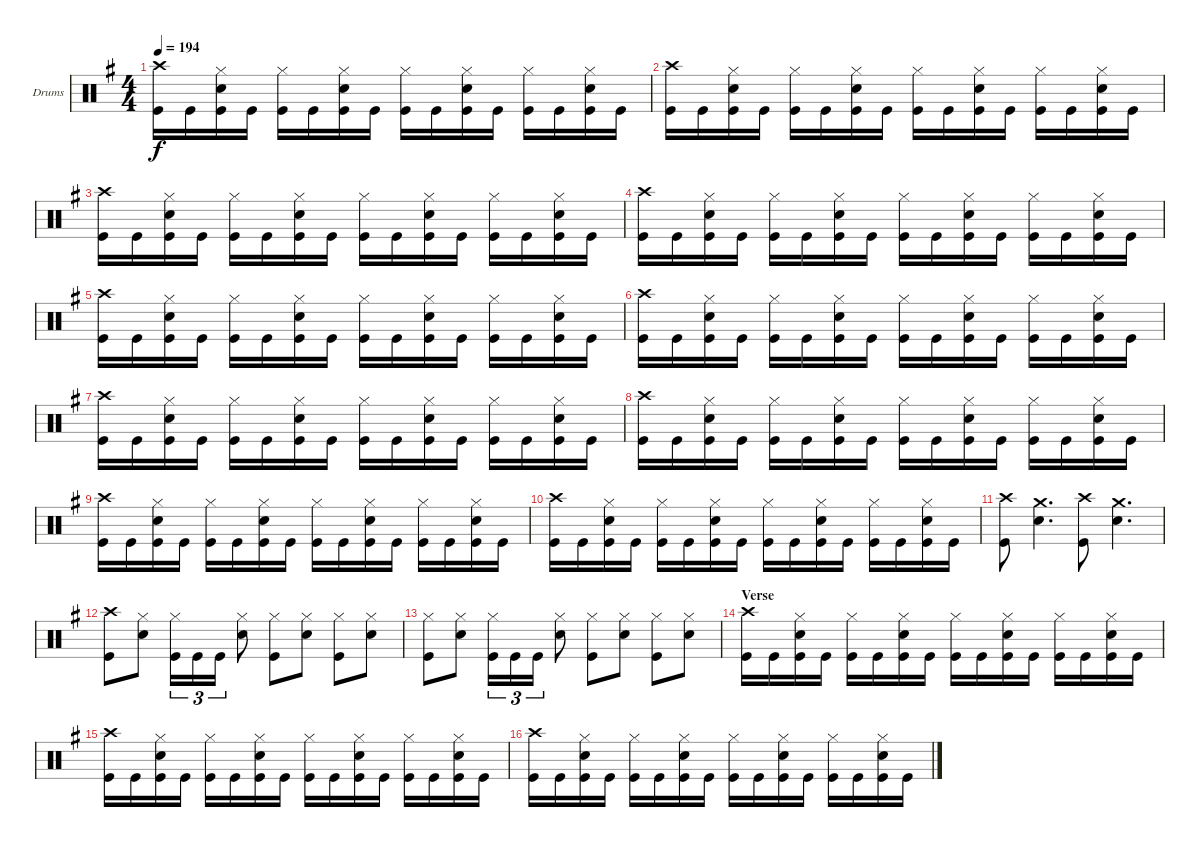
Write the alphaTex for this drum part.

\bracketExtendMode groupsimilarinstruments
\firstSystemTrackNameOrientation horizontal
\otherSystemsTrackNameOrientation horizontal
\track ("Drumkit" "Drums") {instrument percussion}
\staff {score}
\articulation defaults
\ts (4 4)
\tempo 194
\clef neutral
\scale
1.04288
\ks g
("Crash high (hit)" "Kick (hit)").16{dy f} "Kick (hit)".16 ("Hi-Hat (closed)" "Snare (hit) 2" "Kick (hit)").16 "Kick (hit)".16 ("Hi-Hat (closed)" "Kick (hit)").16 "Kick (hit)".16 ("Hi-Hat (closed)" "Snare (hit) 2" "Kick (hit)").16 "Kick (hit)".16 ("Hi-Hat (closed)" "Kick (hit)").16 "Kick (hit)".16 ("Hi-Hat (closed)" "Snare (hit) 2" "Kick (hit)").16 "Kick (hit)".16 ("Hi-Hat (closed)" "Kick (hit)").16 "Kick (hit)".16 ("Hi-Hat (closed)" "Snare (hit) 2" "Kick (hit)").16 "Kick (hit)".16 |
\scale
0.957125 ("Crash high (hit)" "Kick (hit)").16 "Kick (hit)".16 ("Hi-Hat (closed)" "Snare (hit) 2" "Kick (hit)").16 "Kick (hit)".16 ("Hi-Hat (closed)" "Kick (hit)").16 "Kick (hit)".16 ("Hi-Hat (closed)" "Snare (hit) 2" "Kick (hit)").16 "Kick (hit)".16 ("Hi-Hat (closed)" "Kick (hit)").16 "Kick (hit)".16 ("Hi-Hat (closed)" "Snare (hit) 2" "Kick (hit)").16 "Kick (hit)".16 ("Hi-Hat (closed)" "Kick (hit)").16 "Kick (hit)".16 ("Hi-Hat (closed)" "Snare (hit) 2" "Kick (hit)").16 "Kick (hit)".16 |
\scale
1.04288 ("Crash high (hit)" "Kick (hit)").16 "Kick (hit)".16 ("Hi-Hat (closed)" "Snare (hit) 2" "Kick (hit)").16 "Kick (hit)".16 ("Hi-Hat (closed)" "Kick (hit)").16 "Kick (hit)".16 ("Hi-Hat (closed)" "Snare (hit) 2" "Kick (hit)").16 "Kick (hit)".16 ("Hi-Hat (closed)" "Kick (hit)").16 "Kick (hit)".16 ("Hi-Hat (closed)" "Snare (hit) 2" "Kick (hit)").16 "Kick (hit)".16 ("Hi-Hat (closed)" "Kick (hit)").16 "Kick (hit)".16 ("Hi-Hat (closed)" "Snare (hit) 2" "Kick (hit)").16 "Kick (hit)".16 |
\scale
0.957125 ("Crash high (hit)" "Kick (hit)").16 "Kick (hit)".16 ("Hi-Hat (closed)" "Snare (hit) 2" "Kick (hit)").16 "Kick (hit)".16 ("Hi-Hat (closed)" "Kick (hit)").16 "Kick (hit)".16 ("Hi-Hat (closed)" "Snare (hit) 2" "Kick (hit)").16 "Kick (hit)".16 ("Hi-Hat (closed)" "Kick (hit)").16 "Kick (hit)".16 ("Hi-Hat (closed)" "Snare (hit) 2" "Kick (hit)").16 "Kick (hit)".16 ("Hi-Hat (closed)" "Kick (hit)").16 "Kick (hit)".16 ("Hi-Hat (closed)" "Snare (hit) 2" "Kick (hit)").16 "Kick (hit)".16 |
\scale
1.04288 ("Crash high (hit)" "Kick (hit)").16 "Kick (hit)".16 ("Hi-Hat (closed)" "Snare (hit) 2" "Kick (hit)").16 "Kick (hit)".16 ("Hi-Hat (closed)" "Kick (hit)").16 "Kick (hit)".16 ("Hi-Hat (closed)" "Snare (hit) 2" "Kick (hit)").16 "Kick (hit)".16 ("Hi-Hat (closed)" "Kick (hit)").16 "Kick (hit)".16 ("Hi-Hat (closed)" "Snare (hit) 2" "Kick (hit)").16 "Kick (hit)".16 ("Hi-Hat (closed)" "Kick (hit)").16 "Kick (hit)".16 ("Hi-Hat (closed)" "Snare (hit) 2" "Kick (hit)").16 "Kick (hit)".16 |
\scale
0.957125 ("Crash high (hit)" "Kick (hit)").16 "Kick (hit)".16 ("Hi-Hat (closed)" "Snare (hit) 2" "Kick (hit)").16 "Kick (hit)".16 ("Hi-Hat (closed)" "Kick (hit)").16 "Kick (hit)".16 ("Hi-Hat (closed)" "Snare (hit) 2" "Kick (hit)").16 "Kick (hit)".16 ("Hi-Hat (closed)" "Kick (hit)").16 "Kick (hit)".16 ("Hi-Hat (closed)" "Snare (hit) 2" "Kick (hit)").16 "Kick (hit)".16 ("Hi-Hat (closed)" "Kick (hit)").16 "Kick (hit)".16 ("Hi-Hat (closed)" "Snare (hit) 2" "Kick (hit)").16 "Kick (hit)".16 |
\scale
1.04288 ("Crash high (hit)" "Kick (hit)").16 "Kick (hit)".16 ("Hi-Hat (closed)" "Snare (hit) 2" "Kick (hit)").16 "Kick (hit)".16 ("Hi-Hat (closed)" "Kick (hit)").16 "Kick (hit)".16 ("Hi-Hat (closed)" "Snare (hit) 2" "Kick (hit)").16 "Kick (hit)".16 ("Hi-Hat (closed)" "Kick (hit)").16 "Kick (hit)".16 ("Hi-Hat (closed)" "Snare (hit) 2" "Kick (hit)").16 "Kick (hit)".16 ("Hi-Hat (closed)" "Kick (hit)").16 "Kick (hit)".16 ("Hi-Hat (closed)" "Snare (hit) 2" "Kick (hit)").16 "Kick (hit)".16 |
\scale
0.957125 ("Crash high (hit)" "Kick (hit)").16 "Kick (hit)".16 ("Hi-Hat (closed)" "Snare (hit) 2" "Kick (hit)").16 "Kick (hit)".16 ("Hi-Hat (closed)" "Kick (hit)").16 "Kick (hit)".16 ("Hi-Hat (closed)" "Snare (hit) 2" "Kick (hit)").16 "Kick (hit)".16 ("Hi-Hat (closed)" "Kick (hit)").16 "Kick (hit)".16 ("Hi-Hat (closed)" "Snare (hit) 2" "Kick (hit)").16 "Kick (hit)".16 ("Hi-Hat (closed)" "Kick (hit)").16 "Kick (hit)".16 ("Hi-Hat (closed)" "Snare (hit) 2" "Kick (hit)").16 "Kick (hit)".16 |
\scale
1.04288 ("Crash high (hit)" "Kick (hit)").16 "Kick (hit)".16 ("Hi-Hat (closed)" "Snare (hit) 2" "Kick (hit)").16 "Kick (hit)".16 ("Hi-Hat (closed)" "Kick (hit)").16 "Kick (hit)".16 ("Hi-Hat (closed)" "Snare (hit) 2" "Kick (hit)").16 "Kick (hit)".16 ("Hi-Hat (closed)" "Kick (hit)").16 "Kick (hit)".16 ("Hi-Hat (closed)" "Snare (hit) 2" "Kick (hit)").16 "Kick (hit)".16 ("Hi-Hat (closed)" "Kick (hit)").16 "Kick (hit)".16 ("Hi-Hat (closed)" "Snare (hit) 2" "Kick (hit)").16 "Kick (hit)".16 |
\scale
0.957125 ("Crash high (hit)" "Kick (hit)").16 "Kick (hit)".16 ("Hi-Hat (closed)" "Snare (hit) 2" "Kick (hit)").16 "Kick (hit)".16 ("Hi-Hat (closed)" "Kick (hit)").16 "Kick (hit)".16 ("Hi-Hat (closed)" "Snare (hit) 2" "Kick (hit)").16 "Kick (hit)".16 ("Hi-Hat (closed)" "Kick (hit)").16 "Kick (hit)".16 ("Hi-Hat (closed)" "Snare (hit) 2" "Kick (hit)").16 "Kick (hit)".16 ("Hi-Hat (closed)" "Kick (hit)").16 "Kick (hit)".16 ("Hi-Hat (closed)" "Snare (hit) 2" "Kick (hit)").16 "Kick (hit)".16 |
\scale
1.04288 ("Crash high (hit)" "Kick (hit)").8 ("Crash medium (hit)" "Snare (hit) 2").4{d} ("Crash high (hit)" "Kick (hit)").8 ("Crash medium (hit)" "Snare (hit) 2").4{d} |
\scale
0.957125 ("Crash high (hit)" "Kick (hit)").8 ("Hi-Hat (closed)" "Snare (hit) 2").8 ("Hi-Hat (closed)" "Kick (hit)").16{tu (3 2)} "Kick (hit)".16{tu (3 2)} "Kick (hit)".16{tu (3 2)} ("Hi-Hat (closed)" "Snare (hit) 2").8 ("Hi-Hat (closed)" "Kick (hit)").8 ("Hi-Hat (closed)" "Snare (hit) 2").8 ("Hi-Hat (closed)" "Kick (hit)").8 ("Hi-Hat (closed)" "Snare (hit) 2").8 |
\scale
1.04288 ("Hi-Hat (closed)" "Kick (hit)").8 ("Hi-Hat (closed)" "Snare (hit) 2").8 ("Hi-Hat (closed)" "Kick (hit)").16{tu (3 2)} "Kick (hit)".16{tu (3 2)} "Kick (hit)".16{tu (3 2)} ("Hi-Hat (closed)" "Snare (hit) 2").8 ("Hi-Hat (closed)" "Kick (hit)").8 ("Hi-Hat (closed)" "Snare (hit) 2").8 ("Hi-Hat (closed)" "Kick (hit)").8 ("Hi-Hat (closed)" "Snare (hit) 2").8 |
\section ("" "Verse")
\scale
0.957125 ("Crash high (hit)" "Kick (hit)").16 "Kick (hit)".16 ("Hi-Hat (closed)" "Snare (hit) 2" "Kick (hit)").16 "Kick (hit)".16 ("Hi-Hat (closed)" "Kick (hit)").16 "Kick (hit)".16 ("Hi-Hat (closed)" "Snare (hit) 2" "Kick (hit)").16 "Kick (hit)".16 ("Hi-Hat (closed)" "Kick (hit)").16 "Kick (hit)".16 ("Hi-Hat (closed)" "Snare (hit) 2" "Kick (hit)").16 "Kick (hit)".16 ("Hi-Hat (closed)" "Kick (hit)").16 "Kick (hit)".16 ("Hi-Hat (closed)" "Snare (hit) 2" "Kick (hit)").16 "Kick (hit)".16 |
\scale
1.04288 ("Crash high (hit)" "Kick (hit)").16 "Kick (hit)".16 ("Hi-Hat (closed)" "Snare (hit) 2" "Kick (hit)").16 "Kick (hit)".16 ("Hi-Hat (closed)" "Kick (hit)").16 "Kick (hit)".16 ("Hi-Hat (closed)" "Snare (hit) 2" "Kick (hit)").16 "Kick (hit)".16 ("Hi-Hat (closed)" "Kick (hit)").16 "Kick (hit)".16 ("Hi-Hat (closed)" "Snare (hit) 2" "Kick (hit)").16 "Kick (hit)".16 ("Hi-Hat (closed)" "Kick (hit)").16 "Kick (hit)".16 ("Hi-Hat (closed)" "Snare (hit) 2" "Kick (hit)").16 "Kick (hit)".16 |
\scale
0.957125 ("Crash high (hit)" "Kick (hit)").16 "Kick (hit)".16 ("Hi-Hat (closed)" "Snare (hit) 2" "Kick (hit)").16 "Kick (hit)".16 ("Hi-Hat (closed)" "Kick (hit)").16 "Kick (hit)".16 ("Hi-Hat (closed)" "Snare (hit) 2" "Kick (hit)").16 "Kick (hit)".16 ("Hi-Hat (closed)" "Kick (hit)").16 "Kick (hit)".16 ("Hi-Hat (closed)" "Snare (hit) 2" "Kick (hit)").16 "Kick (hit)".16 ("Hi-Hat (closed)" "Kick (hit)").16 "Kick (hit)".16 ("Hi-Hat (closed)" "Snare (hit) 2" "Kick (hit)").16 "Kick (hit)".16
